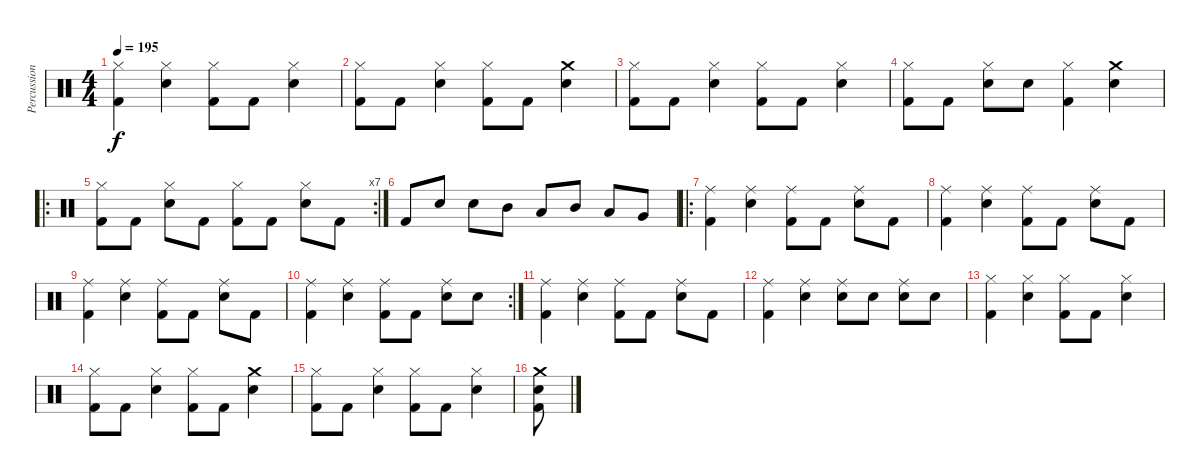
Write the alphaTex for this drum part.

\track ("Percussion" "Percussion") {instrument percussion}
\staff {score}
\articulation defaults
\ts (4 4)
\tempo 195
\clef neutral
\ks c
("Hi-Hat (closed)" "Kick (hit) 2").4{dy f} ("Hi-Hat (closed)" "Snare (hit) 2").4 ("Hi-Hat (closed)" "Kick (hit) 2").8 "Kick (hit) 2".8 ("Hi-Hat (closed)" "Snare (hit) 2").4 |
("Hi-Hat (closed)" "Kick (hit) 2").8 "Kick (hit) 2".8 ("Hi-Hat (closed)" "Snare (hit) 2").4 ("Hi-Hat (closed)" "Kick (hit) 2").8 "Kick (hit) 2".8 ("Crash medium (hit)" "Snare (hit) 2").4 |
("Hi-Hat (closed)" "Kick (hit) 2").8 "Kick (hit) 2".8 ("Hi-Hat (closed)" "Snare (hit) 2").4 ("Hi-Hat (closed)" "Kick (hit) 2").8 "Kick (hit) 2".8 ("Hi-Hat (closed)" "Snare (hit) 2").4 |
("Hi-Hat (closed)" "Kick (hit) 2").8 "Kick (hit) 2".8 ("Hi-Hat (closed)" "Snare (hit) 2").8 "Snare (hit) 2".8 ("Hi-Hat (closed)" "Kick (hit) 2").4 ("Crash medium (hit)" "Snare (hit) 2").4 |
\ro
\rc 7
("Hi-Hat (closed)" "Kick (hit) 2").8 "Kick (hit) 2".8 ("Hi-Hat (closed)" "Snare (hit) 2").8 "Kick (hit) 2".8 ("Hi-Hat (closed)" "Kick (hit) 2").8 "Kick (hit) 2".8 ("Hi-Hat (closed)" "Snare (hit) 2").8 "Kick (hit) 2".8 |
"Kick (hit) 2".8 "Snare (hit) 2".8 "Snare (hit) 2".8 "Mid Tom (hit)".8 "Low Tom (hit)".8 "Mid Tom (hit)".8 "Low Tom (hit)".8 "Very Low Tom (hit)".8 |
\ro
("Ride (middle)" "Kick (hit) 2").4 ("Ride (middle)" "Snare (hit) 2").4 ("Ride (middle)" "Kick (hit) 2").8 "Kick (hit) 2".8 ("Ride (middle)" "Snare (hit) 2").8 "Kick (hit) 2".8 |
("Ride (middle)" "Kick (hit) 2").4 ("Ride (middle)" "Snare (hit) 2").4 ("Ride (middle)" "Kick (hit) 2").8 "Kick (hit) 2".8 ("Ride (middle)" "Snare (hit) 2").8 "Kick (hit) 2".8 |
("Ride (middle)" "Kick (hit) 2").4 ("Ride (middle)" "Snare (hit) 2").4 ("Ride (middle)" "Kick (hit) 2").8 "Kick (hit) 2".8 ("Ride (middle)" "Snare (hit) 2").8 "Kick (hit) 2".8 |
\rc 2
("Ride (middle)" "Kick (hit) 2").4 ("Ride (middle)" "Snare (hit) 2").4 ("Ride (middle)" "Kick (hit) 2").8 "Kick (hit) 2".8 ("Ride (middle)" "Snare (hit) 2").8 "Snare (hit) 2".8 |
("Ride (middle)" "Kick (hit) 2").4 ("Ride (middle)" "Snare (hit) 2").4 ("Ride (middle)" "Kick (hit) 2").8 "Kick (hit) 2".8 ("Ride (middle)" "Snare (hit) 2").8 "Kick (hit) 2".8 |
("Ride (middle)" "Kick (hit) 2").4 ("Ride (middle)" "Snare (hit) 2").4 ("Ride (middle)" "Snare (hit) 2").8 "Snare (hit) 2".8 ("Ride (middle)" "Snare (hit) 2").8 "Snare (hit) 2".8 |
("Hi-Hat (closed)" "Kick (hit) 2").4 ("Hi-Hat (closed)" "Snare (hit) 2").4 ("Hi-Hat (closed)" "Kick (hit) 2").8 "Kick (hit) 2".8 ("Hi-Hat (closed)" "Snare (hit) 2").4 |
("Hi-Hat (closed)" "Kick (hit) 2").8 "Kick (hit) 2".8 ("Hi-Hat (closed)" "Snare (hit) 2").4 ("Hi-Hat (closed)" "Kick (hit) 2").8 "Kick (hit) 2".8 ("Crash medium (hit)" "Snare (hit) 2").4 |
("Hi-Hat (closed)" "Kick (hit) 2").8 "Kick (hit) 2".8 ("Hi-Hat (closed)" "Snare (hit) 2").4 ("Hi-Hat (closed)" "Kick (hit) 2").8 "Kick (hit) 2".8 ("Hi-Hat (closed)" "Snare (hit) 2").4 |
("Snare (hit) 2" "Crash medium (hit)" "Kick (hit) 2").8
